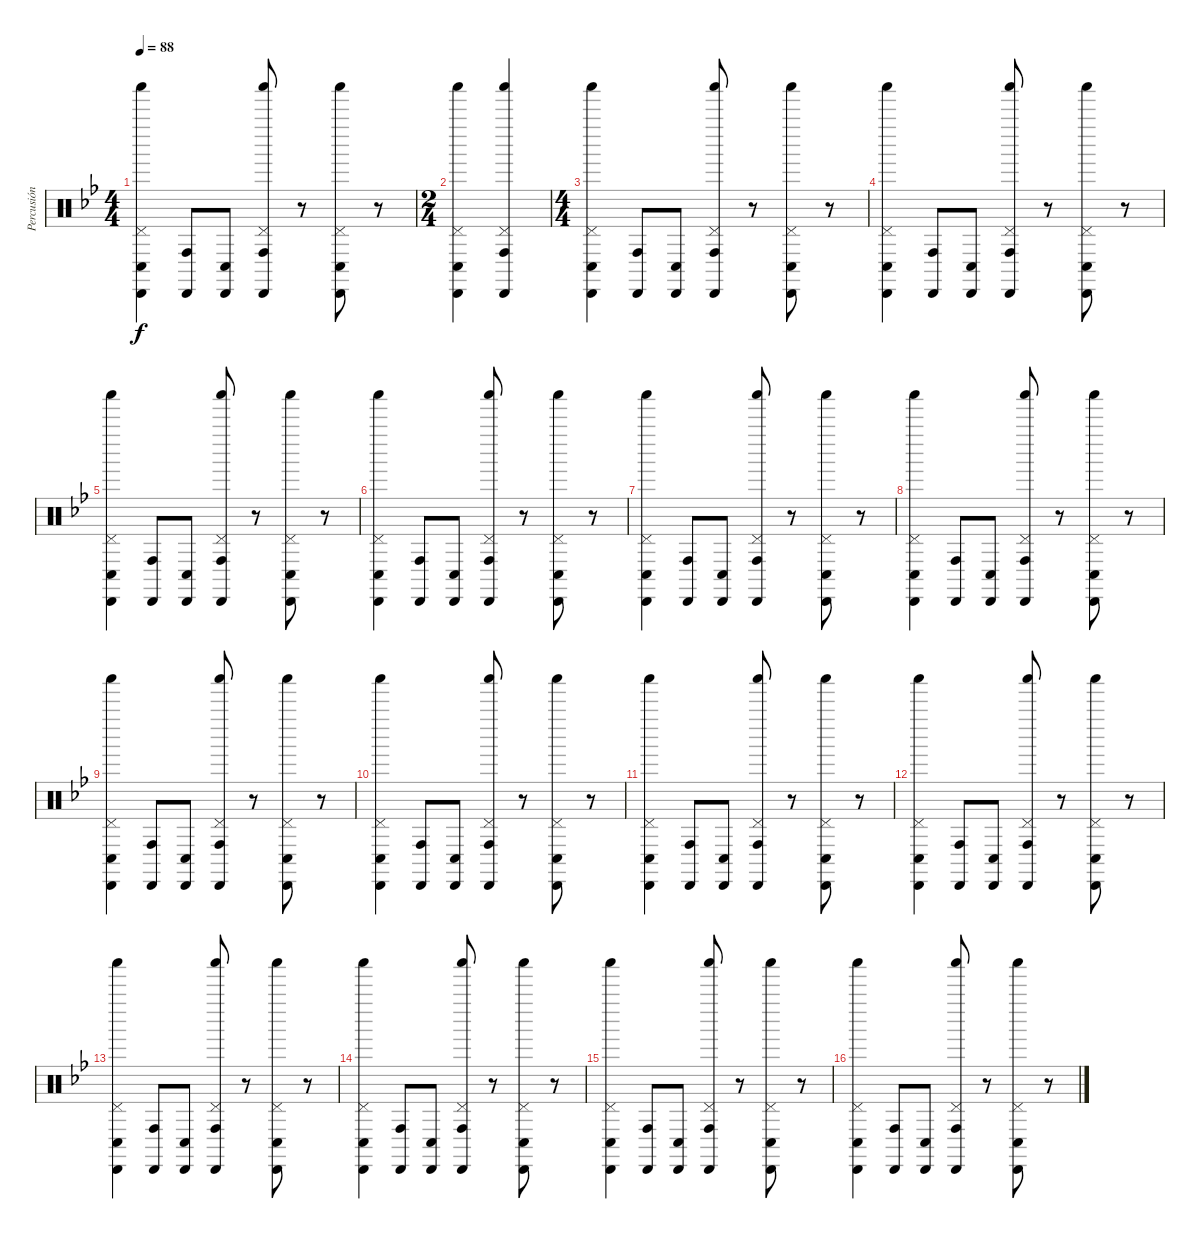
\track ("Percusión" "Percusión") {instrument percussion}
\staff {score}
\articulation defaults
\ts (4 4)
\tempo 88
\clef neutral
\ks bb
("Cabasa (hit)" "Conga low (hit)" "Pedal Hi-Hat (hit)" "Shaker (hit)").4{dy f} ("Cabasa (hit)" "Conga high (hit)").8 ("Cabasa (hit)" "Conga low (hit)").8 ("Cabasa (hit)" "Conga high (hit)" "Pedal Hi-Hat (hit)" "Shaker (hit)").8 r.8 ("Cabasa (hit)" "Conga low (hit)" "Pedal Hi-Hat (hit)" "Shaker (hit)").8 r.8 |
\ts (2 4)
("Cabasa (hit)" "Conga low (hit)" "Pedal Hi-Hat (hit)" "Shaker (hit)").4 ("Cabasa (hit)" "Conga high (hit)" "Pedal Hi-Hat (hit)" "Shaker (hit)").4 |
\ts (4 4)
("Cabasa (hit)" "Conga low (hit)" "Pedal Hi-Hat (hit)" "Shaker (hit)").4 ("Cabasa (hit)" "Conga high (hit)").8 ("Cabasa (hit)" "Conga low (hit)").8 ("Cabasa (hit)" "Conga high (hit)" "Pedal Hi-Hat (hit)" "Shaker (hit)").8 r.8 ("Cabasa (hit)" "Conga low (hit)" "Pedal Hi-Hat (hit)" "Shaker (hit)").8 r.8 |
("Cabasa (hit)" "Conga low (hit)" "Pedal Hi-Hat (hit)" "Shaker (hit)").4 ("Cabasa (hit)" "Conga high (hit)").8 ("Cabasa (hit)" "Conga low (hit)").8 ("Cabasa (hit)" "Conga high (hit)" "Pedal Hi-Hat (hit)" "Shaker (hit)").8 r.8 ("Cabasa (hit)" "Conga low (hit)" "Pedal Hi-Hat (hit)" "Shaker (hit)").8 r.8 |
("Cabasa (hit)" "Conga low (hit)" "Pedal Hi-Hat (hit)" "Shaker (hit)").4 ("Cabasa (hit)" "Conga high (hit)").8 ("Cabasa (hit)" "Conga low (hit)").8 ("Cabasa (hit)" "Conga high (hit)" "Pedal Hi-Hat (hit)" "Shaker (hit)").8 r.8 ("Cabasa (hit)" "Conga low (hit)" "Pedal Hi-Hat (hit)" "Shaker (hit)").8 r.8 |
("Cabasa (hit)" "Conga low (hit)" "Pedal Hi-Hat (hit)" "Shaker (hit)").4 ("Cabasa (hit)" "Conga high (hit)").8 ("Cabasa (hit)" "Conga low (hit)").8 ("Cabasa (hit)" "Conga high (hit)" "Pedal Hi-Hat (hit)" "Shaker (hit)").8 r.8 ("Cabasa (hit)" "Conga low (hit)" "Pedal Hi-Hat (hit)" "Shaker (hit)").8 r.8 |
("Cabasa (hit)" "Conga low (hit)" "Pedal Hi-Hat (hit)" "Shaker (hit)").4 ("Cabasa (hit)" "Conga high (hit)").8 ("Cabasa (hit)" "Conga low (hit)").8 ("Cabasa (hit)" "Conga high (hit)" "Pedal Hi-Hat (hit)" "Shaker (hit)").8 r.8 ("Cabasa (hit)" "Conga low (hit)" "Pedal Hi-Hat (hit)" "Shaker (hit)").8 r.8 |
("Cabasa (hit)" "Conga low (hit)" "Pedal Hi-Hat (hit)" "Shaker (hit)").4 ("Cabasa (hit)" "Conga high (hit)").8 ("Cabasa (hit)" "Conga low (hit)").8 ("Cabasa (hit)" "Conga high (hit)" "Pedal Hi-Hat (hit)" "Shaker (hit)").8 r.8 ("Cabasa (hit)" "Conga low (hit)" "Pedal Hi-Hat (hit)" "Shaker (hit)").8 r.8 |
("Cabasa (hit)" "Conga low (hit)" "Pedal Hi-Hat (hit)" "Shaker (hit)").4 ("Cabasa (hit)" "Conga high (hit)").8 ("Cabasa (hit)" "Conga low (hit)").8 ("Cabasa (hit)" "Conga high (hit)" "Pedal Hi-Hat (hit)" "Shaker (hit)").8 r.8 ("Cabasa (hit)" "Conga low (hit)" "Pedal Hi-Hat (hit)" "Shaker (hit)").8 r.8 |
("Cabasa (hit)" "Conga low (hit)" "Pedal Hi-Hat (hit)" "Shaker (hit)").4 ("Cabasa (hit)" "Conga high (hit)").8 ("Cabasa (hit)" "Conga low (hit)").8 ("Cabasa (hit)" "Conga high (hit)" "Pedal Hi-Hat (hit)" "Shaker (hit)").8 r.8 ("Cabasa (hit)" "Conga low (hit)" "Pedal Hi-Hat (hit)" "Shaker (hit)").8 r.8 |
("Cabasa (hit)" "Conga low (hit)" "Pedal Hi-Hat (hit)" "Shaker (hit)").4 ("Cabasa (hit)" "Conga high (hit)").8 ("Cabasa (hit)" "Conga low (hit)").8 ("Cabasa (hit)" "Conga high (hit)" "Pedal Hi-Hat (hit)" "Shaker (hit)").8 r.8 ("Cabasa (hit)" "Conga low (hit)" "Pedal Hi-Hat (hit)" "Shaker (hit)").8 r.8 |
("Cabasa (hit)" "Conga low (hit)" "Pedal Hi-Hat (hit)" "Shaker (hit)").4 ("Cabasa (hit)" "Conga high (hit)").8 ("Cabasa (hit)" "Conga low (hit)").8 ("Cabasa (hit)" "Conga high (hit)" "Pedal Hi-Hat (hit)" "Shaker (hit)").8 r.8 ("Cabasa (hit)" "Conga low (hit)" "Pedal Hi-Hat (hit)" "Shaker (hit)").8 r.8 |
("Cabasa (hit)" "Conga low (hit)" "Pedal Hi-Hat (hit)" "Shaker (hit)").4 ("Cabasa (hit)" "Conga high (hit)").8 ("Cabasa (hit)" "Conga low (hit)").8 ("Cabasa (hit)" "Conga high (hit)" "Pedal Hi-Hat (hit)" "Shaker (hit)").8 r.8 ("Cabasa (hit)" "Conga low (hit)" "Pedal Hi-Hat (hit)" "Shaker (hit)").8 r.8 |
("Cabasa (hit)" "Conga low (hit)" "Pedal Hi-Hat (hit)" "Shaker (hit)").4 ("Cabasa (hit)" "Conga high (hit)").8 ("Cabasa (hit)" "Conga low (hit)").8 ("Cabasa (hit)" "Conga high (hit)" "Pedal Hi-Hat (hit)" "Shaker (hit)").8 r.8 ("Cabasa (hit)" "Conga low (hit)" "Pedal Hi-Hat (hit)" "Shaker (hit)").8 r.8 |
("Cabasa (hit)" "Conga low (hit)" "Pedal Hi-Hat (hit)" "Shaker (hit)").4 ("Cabasa (hit)" "Conga high (hit)").8 ("Cabasa (hit)" "Conga low (hit)").8 ("Cabasa (hit)" "Conga high (hit)" "Pedal Hi-Hat (hit)" "Shaker (hit)").8 r.8 ("Cabasa (hit)" "Conga low (hit)" "Pedal Hi-Hat (hit)" "Shaker (hit)").8 r.8 |
("Cabasa (hit)" "Conga low (hit)" "Pedal Hi-Hat (hit)" "Shaker (hit)").4 ("Cabasa (hit)" "Conga high (hit)").8 ("Cabasa (hit)" "Conga low (hit)").8 ("Cabasa (hit)" "Conga high (hit)" "Pedal Hi-Hat (hit)" "Shaker (hit)").8 r.8 ("Cabasa (hit)" "Conga low (hit)" "Pedal Hi-Hat (hit)" "Shaker (hit)").8 r.8
